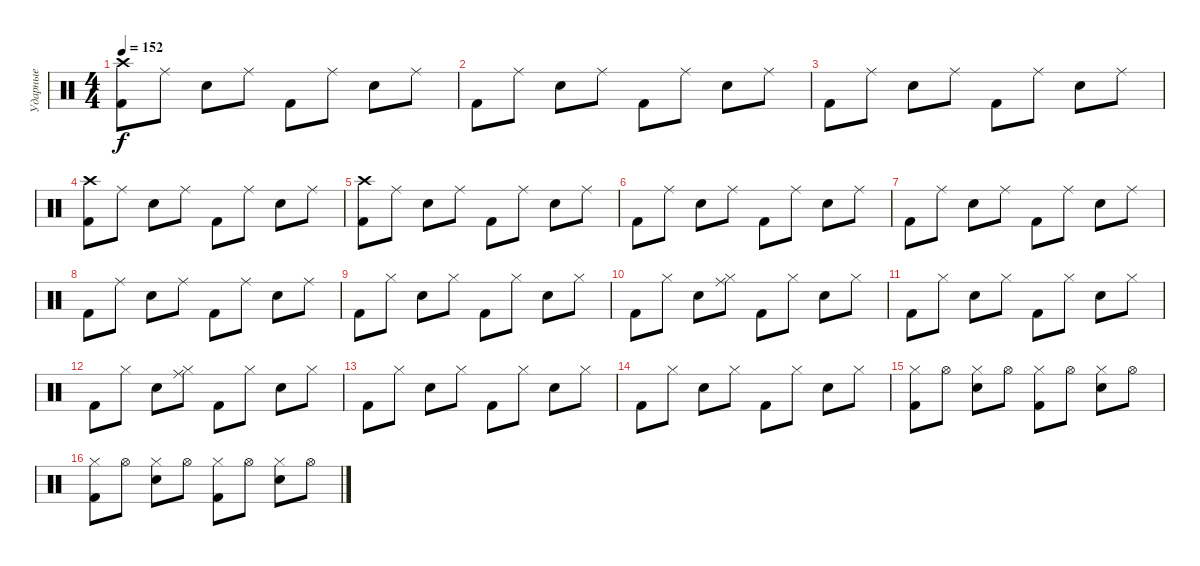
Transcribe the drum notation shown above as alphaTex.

\track ("Ударные" "Ударные") {instrument percussion}
\staff {score}
\articulation defaults
\ts (4 4)
\tempo 152
\clef neutral
\ks c
("Crash high (hit)" "Kick (hit) 2").8{dy f} "Ride (middle)".8 "Electric Snare (hit)".8 "Ride (middle)".8 "Kick (hit) 2".8 "Ride (middle)".8 "Electric Snare (hit)".8 "Ride (middle)".8 |
"Kick (hit) 2".8 "Ride (middle)".8 "Electric Snare (hit)".8 "Ride (middle)".8 "Kick (hit) 2".8 "Ride (middle)".8 "Electric Snare (hit)".8 "Ride (middle)".8 |
"Kick (hit) 2".8 "Ride (middle)".8 "Electric Snare (hit)".8 "Ride (middle)".8 "Kick (hit) 2".8 "Ride (middle)".8 "Electric Snare (hit)".8 "Ride (middle)".8 |
("Crash high (hit)" "Kick (hit) 2").8 "Ride (middle)".8 "Electric Snare (hit)".8 "Ride (middle)".8 "Kick (hit) 2".8 "Ride (middle)".8 "Electric Snare (hit)".8 "Ride (middle)".8 |
("Crash high (hit)" "Kick (hit) 2").8 "Ride (middle)".8 "Electric Snare (hit)".8 "Ride (middle)".8 "Kick (hit) 2".8 "Ride (middle)".8 "Electric Snare (hit)".8 "Ride (middle)".8 |
"Kick (hit) 2".8 "Ride (middle)".8 "Electric Snare (hit)".8 "Ride (middle)".8 "Kick (hit) 2".8 "Ride (middle)".8 "Electric Snare (hit)".8 "Ride (middle)".8 |
"Kick (hit) 2".8 "Ride (middle)".8 "Electric Snare (hit)".8 "Ride (middle)".8 "Kick (hit) 2".8 "Ride (middle)".8 "Electric Snare (hit)".8 "Ride (middle)".8 |
"Kick (hit) 2".8 "Ride (middle)".8 "Electric Snare (hit)".8 "Ride (middle)".8 "Kick (hit) 2".8 "Ride (middle)".8 "Electric Snare (hit)".8 "Ride (middle)".8 |
"Kick (hit) 2".8 "Hi-Hat (closed)".8 "Electric Snare (hit)".8 "Hi-Hat (closed)".8 "Kick (hit) 2".8 "Hi-Hat (closed)".8 "Electric Snare (hit)".8 "Hi-Hat (closed)".8 |
"Kick (hit) 2".8 "Hi-Hat (closed)".8 "Electric Snare (hit)".8 ("Ride (middle)" "Hi-Hat (closed)").8 "Kick (hit) 2".8 "Hi-Hat (closed)".8 "Electric Snare (hit)".8 "Hi-Hat (closed)".8 |
"Kick (hit) 2".8 "Hi-Hat (closed)".8 "Electric Snare (hit)".8 "Hi-Hat (closed)".8 "Kick (hit) 2".8 "Hi-Hat (closed)".8 "Electric Snare (hit)".8 "Hi-Hat (closed)".8 |
"Kick (hit) 2".8 "Hi-Hat (closed)".8 "Electric Snare (hit)".8 ("Ride (middle)" "Hi-Hat (closed)").8 "Kick (hit) 2".8 "Hi-Hat (closed)".8 "Electric Snare (hit)".8 "Hi-Hat (closed)".8 |
"Kick (hit) 2".8 "Hi-Hat (closed)".8 "Electric Snare (hit)".8 "Hi-Hat (closed)".8 "Kick (hit) 2".8 "Hi-Hat (closed)".8 "Electric Snare (hit)".8 "Hi-Hat (closed)".8 |
"Kick (hit) 2".8 "Hi-Hat (closed)".8 "Electric Snare (hit)".8 "Hi-Hat (closed)".8 "Kick (hit) 2".8 "Hi-Hat (closed)".8 "Electric Snare (hit)".8 "Hi-Hat (closed)".8 |
("Hi-Hat (closed)" "Kick (hit) 2").8 "Hi-Hat (open)".8 ("Hi-Hat (closed)" "Electric Snare (hit)").8 "Hi-Hat (open)".8 ("Hi-Hat (closed)" "Kick (hit) 2").8 "Hi-Hat (open)".8 ("Hi-Hat (closed)" "Electric Snare (hit)").8 "Hi-Hat (open)".8 |
("Hi-Hat (closed)" "Kick (hit) 2").8 "Hi-Hat (open)".8 ("Hi-Hat (closed)" "Electric Snare (hit)").8 "Hi-Hat (open)".8 ("Hi-Hat (closed)" "Kick (hit) 2").8 "Hi-Hat (open)".8 ("Hi-Hat (closed)" "Electric Snare (hit)").8 "Hi-Hat (open)".8
